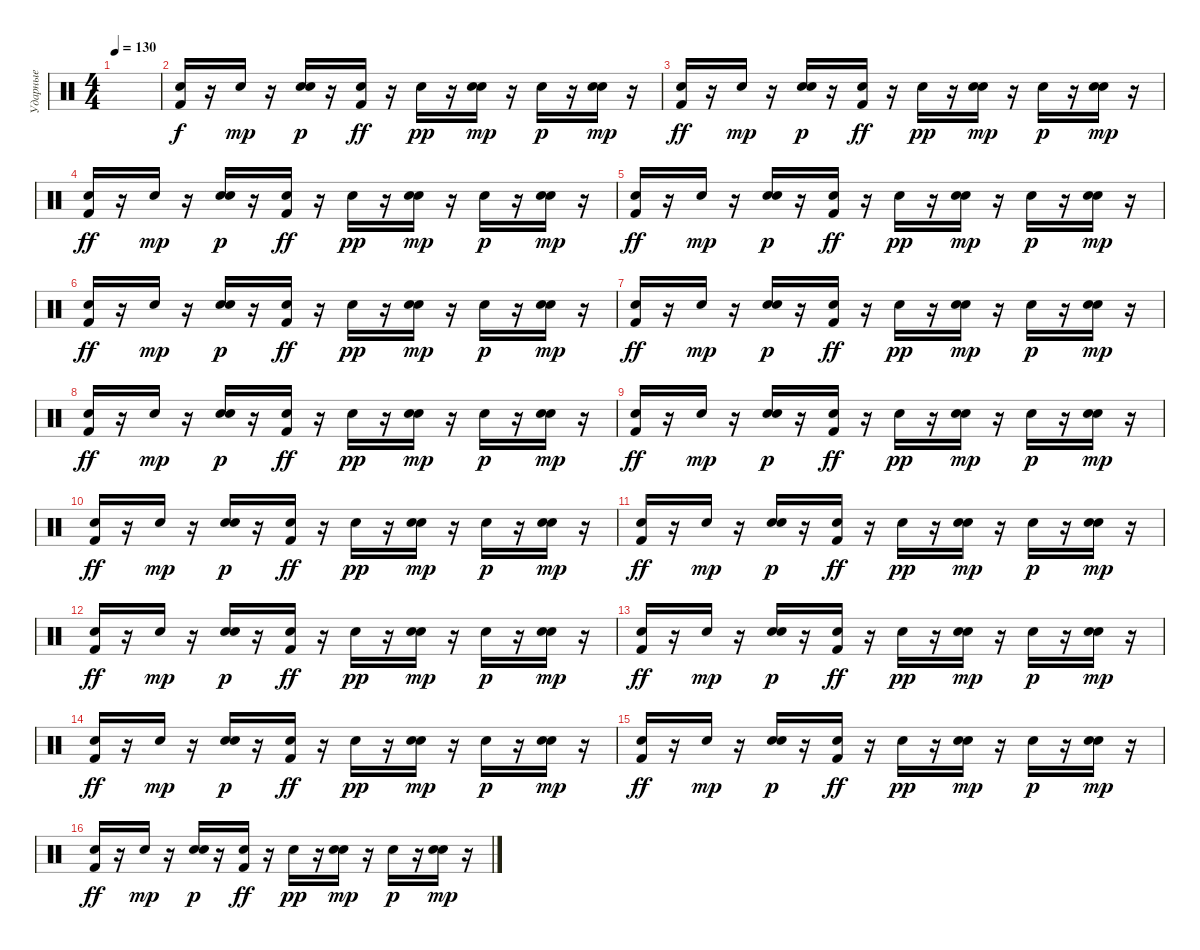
\track ("Ударные" "Ударные") {instrument percussion}
\staff {score}
\articulation defaults
\ts (4 4)
\tempo 130
\clef neutral
\ks c
|
("Hand Clap (hit)" "Kick (hit) 2").16 r.16 "Hand Clap (hit)".16{dy mp} r.16 ("Hand Clap (hit)" "Electric Snare (hit)").16{dy p} r.16 ("Hand Clap (hit)" "Kick (hit) 2").16{dy ff} r.16 "Hand Clap (hit)".16{dy pp} r.16 ("Hand Clap (hit)" "Electric Snare (hit)").16{dy mp} r.16 "Hand Clap (hit)".16{dy p} r.16 ("Hand Clap (hit)" "Electric Snare (hit)").16{dy mp} r.16 |
("Hand Clap (hit)" "Kick (hit) 2").16{dy ff} r.16 "Hand Clap (hit)".16{dy mp} r.16 ("Hand Clap (hit)" "Electric Snare (hit)").16{dy p} r.16 ("Hand Clap (hit)" "Kick (hit) 2").16{dy ff} r.16 "Hand Clap (hit)".16{dy pp} r.16 ("Hand Clap (hit)" "Electric Snare (hit)").16{dy mp} r.16 "Hand Clap (hit)".16{dy p} r.16 ("Hand Clap (hit)" "Electric Snare (hit)").16{dy mp} r.16 |
("Hand Clap (hit)" "Kick (hit) 2").16{dy ff} r.16 "Hand Clap (hit)".16{dy mp} r.16 ("Hand Clap (hit)" "Electric Snare (hit)").16{dy p} r.16 ("Hand Clap (hit)" "Kick (hit) 2").16{dy ff} r.16 "Hand Clap (hit)".16{dy pp} r.16 ("Hand Clap (hit)" "Electric Snare (hit)").16{dy mp} r.16 "Hand Clap (hit)".16{dy p} r.16 ("Hand Clap (hit)" "Electric Snare (hit)").16{dy mp} r.16 |
("Hand Clap (hit)" "Kick (hit) 2").16{dy ff} r.16 "Hand Clap (hit)".16{dy mp} r.16 ("Hand Clap (hit)" "Electric Snare (hit)").16{dy p} r.16 ("Hand Clap (hit)" "Kick (hit) 2").16{dy ff} r.16 "Hand Clap (hit)".16{dy pp} r.16 ("Hand Clap (hit)" "Electric Snare (hit)").16{dy mp} r.16 "Hand Clap (hit)".16{dy p} r.16 ("Hand Clap (hit)" "Electric Snare (hit)").16{dy mp} r.16 |
("Hand Clap (hit)" "Kick (hit) 2").16{dy ff} r.16 "Hand Clap (hit)".16{dy mp} r.16 ("Hand Clap (hit)" "Electric Snare (hit)").16{dy p} r.16 ("Hand Clap (hit)" "Kick (hit) 2").16{dy ff} r.16 "Hand Clap (hit)".16{dy pp} r.16 ("Hand Clap (hit)" "Electric Snare (hit)").16{dy mp} r.16 "Hand Clap (hit)".16{dy p} r.16 ("Hand Clap (hit)" "Electric Snare (hit)").16{dy mp} r.16 |
("Hand Clap (hit)" "Kick (hit) 2").16{dy ff} r.16 "Hand Clap (hit)".16{dy mp} r.16 ("Hand Clap (hit)" "Electric Snare (hit)").16{dy p} r.16 ("Hand Clap (hit)" "Kick (hit) 2").16{dy ff} r.16 "Hand Clap (hit)".16{dy pp} r.16 ("Hand Clap (hit)" "Electric Snare (hit)").16{dy mp} r.16 "Hand Clap (hit)".16{dy p} r.16 ("Hand Clap (hit)" "Electric Snare (hit)").16{dy mp} r.16 |
("Hand Clap (hit)" "Kick (hit) 2").16{dy ff} r.16 "Hand Clap (hit)".16{dy mp} r.16 ("Hand Clap (hit)" "Electric Snare (hit)").16{dy p} r.16 ("Hand Clap (hit)" "Kick (hit) 2").16{dy ff} r.16 "Hand Clap (hit)".16{dy pp} r.16 ("Hand Clap (hit)" "Electric Snare (hit)").16{dy mp} r.16 "Hand Clap (hit)".16{dy p} r.16 ("Hand Clap (hit)" "Electric Snare (hit)").16{dy mp} r.16 |
("Hand Clap (hit)" "Kick (hit) 2").16{dy ff} r.16 "Hand Clap (hit)".16{dy mp} r.16 ("Hand Clap (hit)" "Electric Snare (hit)").16{dy p} r.16 ("Hand Clap (hit)" "Kick (hit) 2").16{dy ff} r.16 "Hand Clap (hit)".16{dy pp} r.16 ("Hand Clap (hit)" "Electric Snare (hit)").16{dy mp} r.16 "Hand Clap (hit)".16{dy p} r.16 ("Hand Clap (hit)" "Electric Snare (hit)").16{dy mp} r.16 |
("Hand Clap (hit)" "Kick (hit) 2").16{dy ff} r.16 "Hand Clap (hit)".16{dy mp} r.16 ("Hand Clap (hit)" "Electric Snare (hit)").16{dy p} r.16 ("Hand Clap (hit)" "Kick (hit) 2").16{dy ff} r.16 "Hand Clap (hit)".16{dy pp} r.16 ("Hand Clap (hit)" "Electric Snare (hit)").16{dy mp} r.16 "Hand Clap (hit)".16{dy p} r.16 ("Hand Clap (hit)" "Electric Snare (hit)").16{dy mp} r.16 |
("Hand Clap (hit)" "Kick (hit) 2").16{dy ff} r.16 "Hand Clap (hit)".16{dy mp} r.16 ("Hand Clap (hit)" "Electric Snare (hit)").16{dy p} r.16 ("Hand Clap (hit)" "Kick (hit) 2").16{dy ff} r.16 "Hand Clap (hit)".16{dy pp} r.16 ("Hand Clap (hit)" "Electric Snare (hit)").16{dy mp} r.16 "Hand Clap (hit)".16{dy p} r.16 ("Hand Clap (hit)" "Electric Snare (hit)").16{dy mp} r.16 |
("Hand Clap (hit)" "Kick (hit) 2").16{dy ff} r.16 "Hand Clap (hit)".16{dy mp} r.16 ("Hand Clap (hit)" "Electric Snare (hit)").16{dy p} r.16 ("Hand Clap (hit)" "Kick (hit) 2").16{dy ff} r.16 "Hand Clap (hit)".16{dy pp} r.16 ("Hand Clap (hit)" "Electric Snare (hit)").16{dy mp} r.16 "Hand Clap (hit)".16{dy p} r.16 ("Hand Clap (hit)" "Electric Snare (hit)").16{dy mp} r.16 |
("Hand Clap (hit)" "Kick (hit) 2").16{dy ff} r.16 "Hand Clap (hit)".16{dy mp} r.16 ("Hand Clap (hit)" "Electric Snare (hit)").16{dy p} r.16 ("Hand Clap (hit)" "Kick (hit) 2").16{dy ff} r.16 "Hand Clap (hit)".16{dy pp} r.16 ("Hand Clap (hit)" "Electric Snare (hit)").16{dy mp} r.16 "Hand Clap (hit)".16{dy p} r.16 ("Hand Clap (hit)" "Electric Snare (hit)").16{dy mp} r.16 |
("Hand Clap (hit)" "Kick (hit) 2").16{dy ff} r.16 "Hand Clap (hit)".16{dy mp} r.16 ("Hand Clap (hit)" "Electric Snare (hit)").16{dy p} r.16 ("Hand Clap (hit)" "Kick (hit) 2").16{dy ff} r.16 "Hand Clap (hit)".16{dy pp} r.16 ("Hand Clap (hit)" "Electric Snare (hit)").16{dy mp} r.16 "Hand Clap (hit)".16{dy p} r.16 ("Hand Clap (hit)" "Electric Snare (hit)").16{dy mp} r.16 |
("Hand Clap (hit)" "Kick (hit) 2").16{dy ff} r.16 "Hand Clap (hit)".16{dy mp} r.16 ("Hand Clap (hit)" "Electric Snare (hit)").16{dy p} r.16 ("Hand Clap (hit)" "Kick (hit) 2").16{dy ff} r.16 "Hand Clap (hit)".16{dy pp} r.16 ("Hand Clap (hit)" "Electric Snare (hit)").16{dy mp} r.16 "Hand Clap (hit)".16{dy p} r.16 ("Hand Clap (hit)" "Electric Snare (hit)").16{dy mp} r.16 |
("Hand Clap (hit)" "Kick (hit) 2").16{dy ff} r.16 "Hand Clap (hit)".16{dy mp} r.16 ("Hand Clap (hit)" "Electric Snare (hit)").16{dy p} r.16 ("Hand Clap (hit)" "Kick (hit) 2").16{dy ff} r.16 "Hand Clap (hit)".16{dy pp} r.16 ("Hand Clap (hit)" "Electric Snare (hit)").16{dy mp} r.16 "Hand Clap (hit)".16{dy p} r.16 ("Hand Clap (hit)" "Electric Snare (hit)").16{dy mp} r.16
